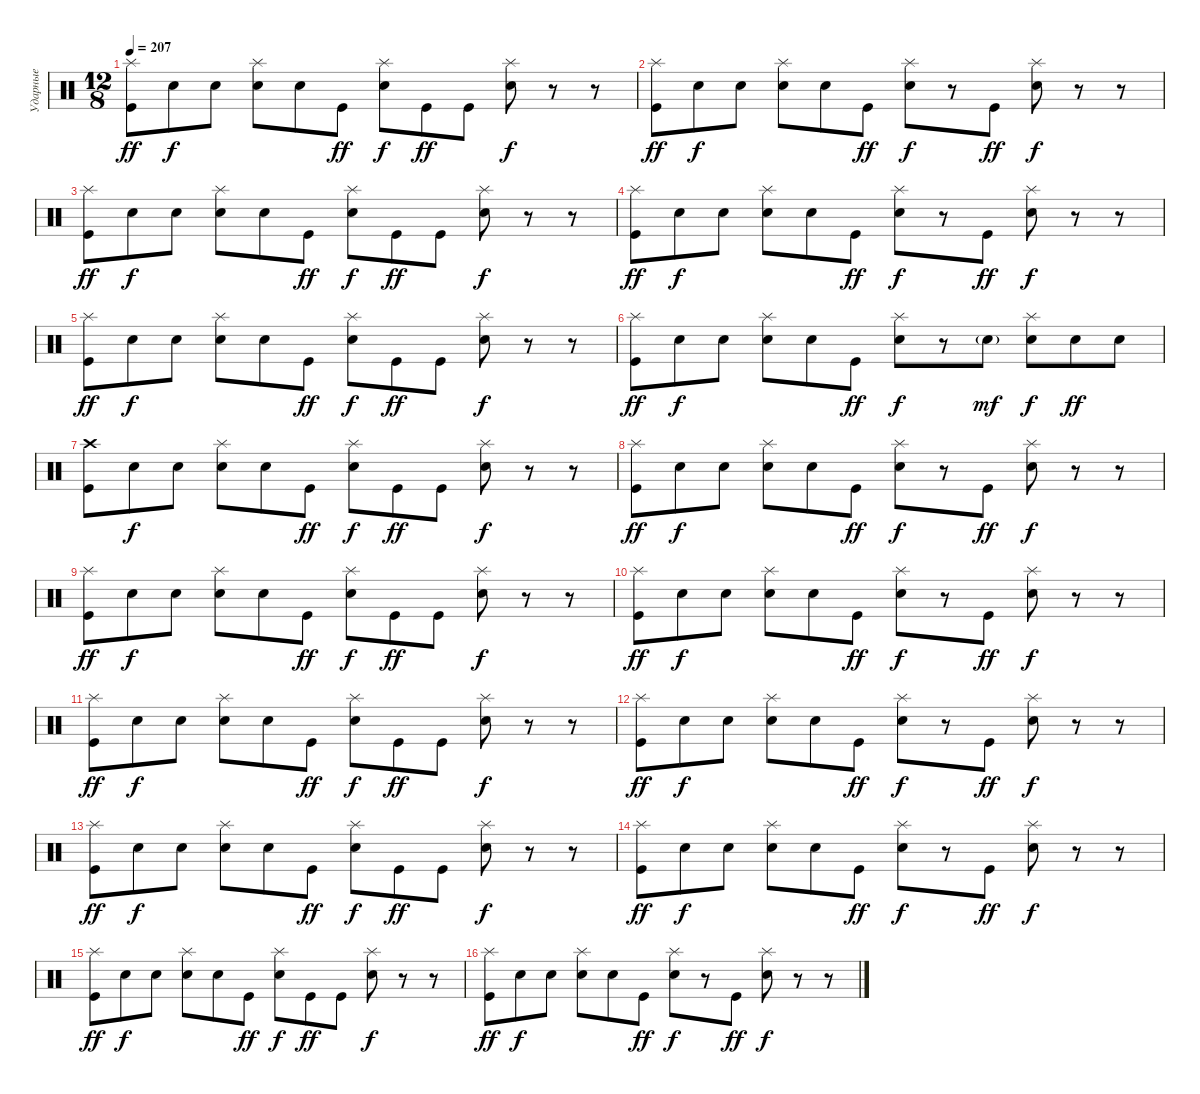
\track ("Ударные" "Ударные") {instrument percussion}
\staff {score}
\articulation defaults
\ts (12 8)
\tempo 207
\clef neutral
\ks c
("Splash (hit)" "Kick (hit)").8{dy ff} "Snare (hit)".8{dy f} "Snare (hit)".8 ("Splash (hit)" "Electric Snare (hit)").8 "Snare (hit)".8 "Kick (hit)".8{dy ff} ("Splash (hit)" "Snare (hit)").8{dy f} "Kick (hit)".8{dy ff} "Kick (hit)".8 ("Splash (hit)" "Electric Snare (hit)").8{dy f} r.8 r.8 |
("Splash (hit)" "Kick (hit)").8{dy ff} "Snare (hit)".8{dy f} "Snare (hit)".8 ("Splash (hit)" "Electric Snare (hit)").8 "Snare (hit)".8 "Kick (hit)".8{dy ff} ("Splash (hit)" "Snare (hit)").8{dy f} r.8 "Kick (hit)".8{dy ff} ("Splash (hit)" "Electric Snare (hit)").8{dy f} r.8 r.8 |
("Splash (hit)" "Kick (hit)").8{dy ff} "Snare (hit)".8{dy f} "Snare (hit)".8 ("Splash (hit)" "Electric Snare (hit)").8 "Snare (hit)".8 "Kick (hit)".8{dy ff} ("Splash (hit)" "Snare (hit)").8{dy f} "Kick (hit)".8{dy ff} "Kick (hit)".8 ("Splash (hit)" "Electric Snare (hit)").8{dy f} r.8 r.8 |
("Splash (hit)" "Kick (hit)").8{dy ff} "Snare (hit)".8{dy f} "Snare (hit)".8 ("Splash (hit)" "Electric Snare (hit)").8 "Snare (hit)".8 "Kick (hit)".8{dy ff} ("Splash (hit)" "Snare (hit)").8{dy f} r.8 "Kick (hit)".8{dy ff} ("Splash (hit)" "Electric Snare (hit)").8{dy f} r.8 r.8 |
("Splash (hit)" "Kick (hit)").8{dy ff} "Snare (hit)".8{dy f} "Snare (hit)".8 ("Splash (hit)" "Electric Snare (hit)").8 "Snare (hit)".8 "Kick (hit)".8{dy ff} ("Splash (hit)" "Snare (hit)").8{dy f} "Kick (hit)".8{dy ff} "Kick (hit)".8 ("Splash (hit)" "Electric Snare (hit)").8{dy f} r.8 r.8 |
("Splash (hit)" "Kick (hit)").8{dy ff} "Snare (hit)".8{dy f} "Snare (hit)".8 ("Splash (hit)" "Electric Snare (hit)").8 "Snare (hit)".8 "Kick (hit)".8{dy ff} ("Splash (hit)" "Snare (hit)").8{dy f} r.8 "Electric Snare (hit)"{g}.8{dy mf} ("Splash (hit)" "Electric Snare (hit)").8{dy f} "Electric Snare (hit)".8{dy ff} "Electric Snare (hit)".8 |
("Crash high (hit)" "Kick (hit)").8 "Snare (hit)".8{dy f} "Snare (hit)".8 ("Splash (hit)" "Electric Snare (hit)").8 "Snare (hit)".8 "Kick (hit)".8{dy ff} ("Splash (hit)" "Snare (hit)").8{dy f} "Kick (hit)".8{dy ff} "Kick (hit)".8 ("Splash (hit)" "Electric Snare (hit)").8{dy f} r.8 r.8 |
("Splash (hit)" "Kick (hit)").8{dy ff} "Snare (hit)".8{dy f} "Snare (hit)".8 ("Splash (hit)" "Electric Snare (hit)").8 "Snare (hit)".8 "Kick (hit)".8{dy ff} ("Splash (hit)" "Snare (hit)").8{dy f} r.8 "Kick (hit)".8{dy ff} ("Splash (hit)" "Electric Snare (hit)").8{dy f} r.8 r.8 |
("Splash (hit)" "Kick (hit)").8{dy ff} "Snare (hit)".8{dy f} "Snare (hit)".8 ("Splash (hit)" "Electric Snare (hit)").8 "Snare (hit)".8 "Kick (hit)".8{dy ff} ("Splash (hit)" "Snare (hit)").8{dy f} "Kick (hit)".8{dy ff} "Kick (hit)".8 ("Splash (hit)" "Electric Snare (hit)").8{dy f} r.8 r.8 |
("Splash (hit)" "Kick (hit)").8{dy ff} "Snare (hit)".8{dy f} "Snare (hit)".8 ("Splash (hit)" "Electric Snare (hit)").8 "Snare (hit)".8 "Kick (hit)".8{dy ff} ("Splash (hit)" "Snare (hit)").8{dy f} r.8 "Kick (hit)".8{dy ff} ("Splash (hit)" "Electric Snare (hit)").8{dy f} r.8 r.8 |
("Splash (hit)" "Kick (hit)").8{dy ff} "Snare (hit)".8{dy f} "Snare (hit)".8 ("Splash (hit)" "Electric Snare (hit)").8 "Snare (hit)".8 "Kick (hit)".8{dy ff} ("Splash (hit)" "Snare (hit)").8{dy f} "Kick (hit)".8{dy ff} "Kick (hit)".8 ("Splash (hit)" "Electric Snare (hit)").8{dy f} r.8 r.8 |
("Splash (hit)" "Kick (hit)").8{dy ff} "Snare (hit)".8{dy f} "Snare (hit)".8 ("Splash (hit)" "Electric Snare (hit)").8 "Snare (hit)".8 "Kick (hit)".8{dy ff} ("Splash (hit)" "Snare (hit)").8{dy f} r.8 "Kick (hit)".8{dy ff} ("Splash (hit)" "Electric Snare (hit)").8{dy f} r.8 r.8 |
("Splash (hit)" "Kick (hit)").8{dy ff} "Snare (hit)".8{dy f} "Snare (hit)".8 ("Splash (hit)" "Electric Snare (hit)").8 "Snare (hit)".8 "Kick (hit)".8{dy ff} ("Splash (hit)" "Snare (hit)").8{dy f} "Kick (hit)".8{dy ff} "Kick (hit)".8 ("Splash (hit)" "Electric Snare (hit)").8{dy f} r.8 r.8 |
("Splash (hit)" "Kick (hit)").8{dy ff} "Snare (hit)".8{dy f} "Snare (hit)".8 ("Splash (hit)" "Electric Snare (hit)").8 "Snare (hit)".8 "Kick (hit)".8{dy ff} ("Splash (hit)" "Snare (hit)").8{dy f} r.8 "Kick (hit)".8{dy ff} ("Splash (hit)" "Electric Snare (hit)").8{dy f} r.8 r.8 |
("Splash (hit)" "Kick (hit)").8{dy ff} "Snare (hit)".8{dy f} "Snare (hit)".8 ("Splash (hit)" "Electric Snare (hit)").8 "Snare (hit)".8 "Kick (hit)".8{dy ff} ("Splash (hit)" "Snare (hit)").8{dy f} "Kick (hit)".8{dy ff} "Kick (hit)".8 ("Splash (hit)" "Electric Snare (hit)").8{dy f} r.8 r.8 |
("Splash (hit)" "Kick (hit)").8{dy ff} "Snare (hit)".8{dy f} "Snare (hit)".8 ("Splash (hit)" "Electric Snare (hit)").8 "Snare (hit)".8 "Kick (hit)".8{dy ff} ("Splash (hit)" "Snare (hit)").8{dy f} r.8 "Kick (hit)".8{dy ff} ("Splash (hit)" "Electric Snare (hit)").8{dy f} r.8 r.8
